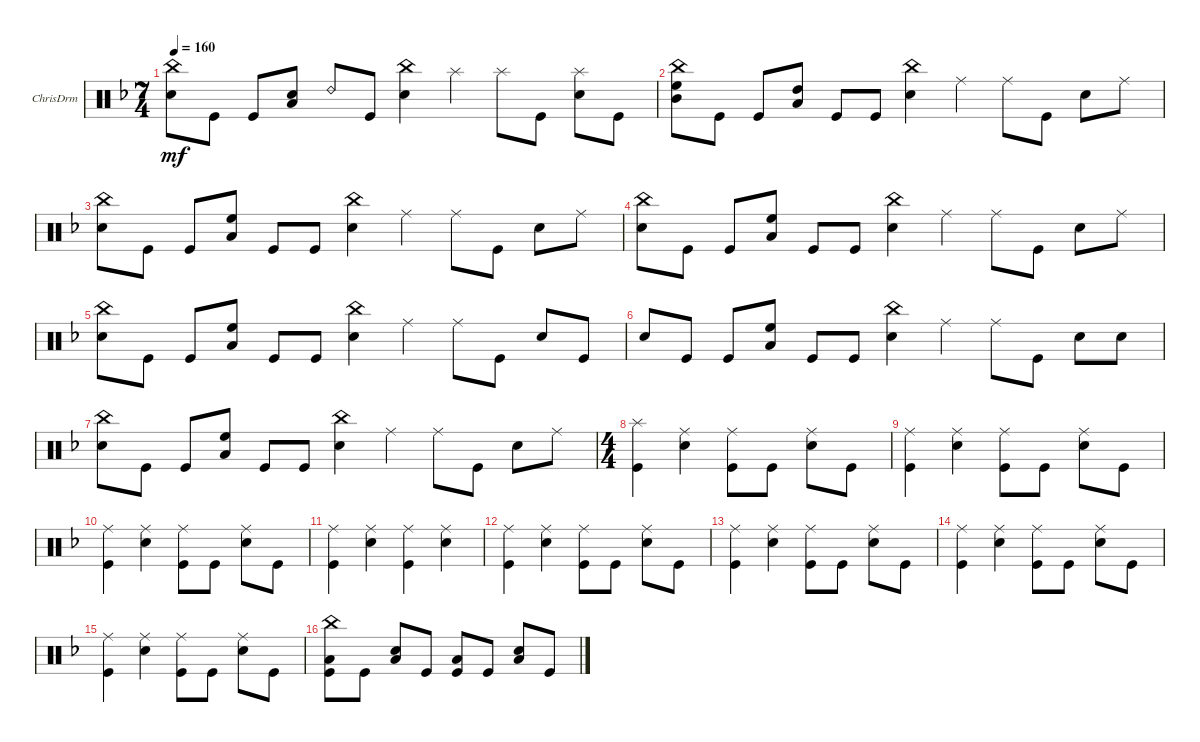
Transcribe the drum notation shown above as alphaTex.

\defaultSystemsLayout 4
\bracketExtendMode groupsimilarinstruments
\firstSystemTrackNameOrientation horizontal
\otherSystemsTrackNameOrientation horizontal
\track ("Drumkit" "ChrisDrm") {instrument percussion}
\staff {score}
\articulation defaults
\ts (7 4)
\tempo 160
\clef neutral
\ks dminor
("Snare (hit) 2" "China (hit)").8{dy mf} "Kick (hit)".8 "Kick (hit)".8 ("Low Tom (hit)" "Snare (hit) 2").8 "Ride (bell) 2".8 "Kick (hit)".8 ("Snare (hit) 2" "China (hit)").4 "Splash (hit)".4 "Splash (hit)".8 "Kick (hit)".8 ("Snare (hit) 2" "Splash (hit)").8 "Kick (hit)".8 |
("China (hit)" "High Floor Tom (hit)" "Mid Tom (hit)").8 "Kick (hit)".8 "Kick (hit)".8 ("High Tom (hit)" "Low Tom (hit)").8 "Kick (hit)".8 "Kick (hit)".8 ("Snare (hit) 2" "China (hit)").4 "Ride (middle)".4 "Ride (middle)".8 "Kick (hit)".8 "Snare (hit) 2".8 "Ride (middle)".8 |
("Snare (hit) 2" "China (hit)").8 "Kick (hit)".8 "Kick (hit)".8 ("High Floor Tom (hit)" "Low Tom (hit)").8 "Kick (hit)".8 "Kick (hit)".8 ("Snare (hit) 2" "China (hit)").4 "Ride (middle)".4 "Ride (middle)".8 "Kick (hit)".8 "Snare (hit) 2".8 "Ride (middle)".8 |
("Snare (hit) 2" "China (hit)").8 "Kick (hit)".8 "Kick (hit)".8 ("High Floor Tom (hit)" "Low Tom (hit)").8 "Kick (hit)".8 "Kick (hit)".8 ("Snare (hit) 2" "China (hit)").4 "Ride (middle)".4 "Ride (middle)".8 "Kick (hit)".8 "Snare (hit) 2".8 "Ride (middle)".8 |
("Snare (hit) 2" "China (hit)").8 "Kick (hit)".8 "Kick (hit)".8 ("High Floor Tom (hit)" "Low Tom (hit)").8 "Kick (hit)".8 "Kick (hit)".8 ("Snare (hit) 2" "China (hit)").4 "Ride (middle)".4 "Ride (middle)".8 "Kick (hit)".8 "Snare (hit) 2".8 "Kick (hit)".8 |
"Snare (hit) 2".8 "Kick (hit)".8 "Kick (hit)".8 ("High Floor Tom (hit)" "Low Tom (hit)").8 "Kick (hit)".8 "Kick (hit)".8 ("Snare (hit) 2" "China (hit)").4 "Ride (middle)".4 "Ride (middle)".8 "Kick (hit)".8 "Snare (hit) 2".8 "Snare (hit) 2".8 |
("Snare (hit) 2" "China (hit)").8 "Kick (hit)".8 "Kick (hit)".8 ("High Floor Tom (hit)" "Low Tom (hit)").8 "Kick (hit)".8 "Kick (hit)".8 ("Snare (hit) 2" "China (hit)").4 "Ride (middle)".4 "Ride (middle)".8 "Kick (hit)".8 "Snare (hit) 2".8 "Ride (middle)".8 |
\ts (4 4)
\beaming (8 2 2 2 2)
("Splash (hit)" "Kick (hit)").4 ("Snare (hit) 2" "Ride (middle)").4 ("Kick (hit)" "Ride (middle)").8 "Kick (hit)".8 ("Snare (hit) 2" "Ride (middle)").8 "Kick (hit)".8 |
("Kick (hit)" "Ride (middle)").4 ("Snare (hit) 2" "Ride (middle)").4 ("Kick (hit)" "Ride (middle)").8 "Kick (hit)".8 ("Snare (hit) 2" "Ride (middle)").8 "Kick (hit)".8 |
("Kick (hit)" "Ride (middle)").4 ("Snare (hit) 2" "Ride (middle)").4 ("Kick (hit)" "Ride (middle)").8 "Kick (hit)".8 ("Snare (hit) 2" "Ride (middle)").8 "Kick (hit)".8 |
("Kick (hit)" "Ride (middle)").4 ("Snare (hit) 2" "Ride (middle)").4 ("Kick (hit)" "Ride (middle)").4 ("Snare (hit) 2" "Ride (middle)").4 |
("Kick (hit)" "Ride (middle)").4 ("Snare (hit) 2" "Ride (middle)").4 ("Kick (hit)" "Ride (middle)").8 "Kick (hit)".8 ("Snare (hit) 2" "Ride (middle)").8 "Kick (hit)".8 |
("Kick (hit)" "Ride (middle)").4 ("Snare (hit) 2" "Ride (middle)").4 ("Kick (hit)" "Ride (middle)").8 "Kick (hit)".8 ("Snare (hit) 2" "Ride (middle)").8 "Kick (hit)".8 |
("Kick (hit)" "Ride (middle)").4 ("Snare (hit) 2" "Ride (middle)").4 ("Kick (hit)" "Ride (middle)").8 "Kick (hit)".8 ("Snare (hit) 2" "Ride (middle)").8 "Kick (hit)".8 |
("Kick (hit)" "Ride (middle)").4 ("Snare (hit) 2" "Ride (middle)").4 ("Kick (hit)" "Ride (middle)").8 "Kick (hit)".8 ("Snare (hit) 2" "Ride (middle)").8 "Kick (hit)".8 |
("China (hit)" "Kick (hit)" "Low Tom (hit)").8 "Kick (hit)".8 ("Snare (hit) 2" "Low Tom (hit)").8 "Kick (hit)".8 ("Kick (hit)" "Low Tom (hit)").8 "Kick (hit)".8 ("Snare (hit) 2" "Low Tom (hit)").8 "Kick (hit)".8
